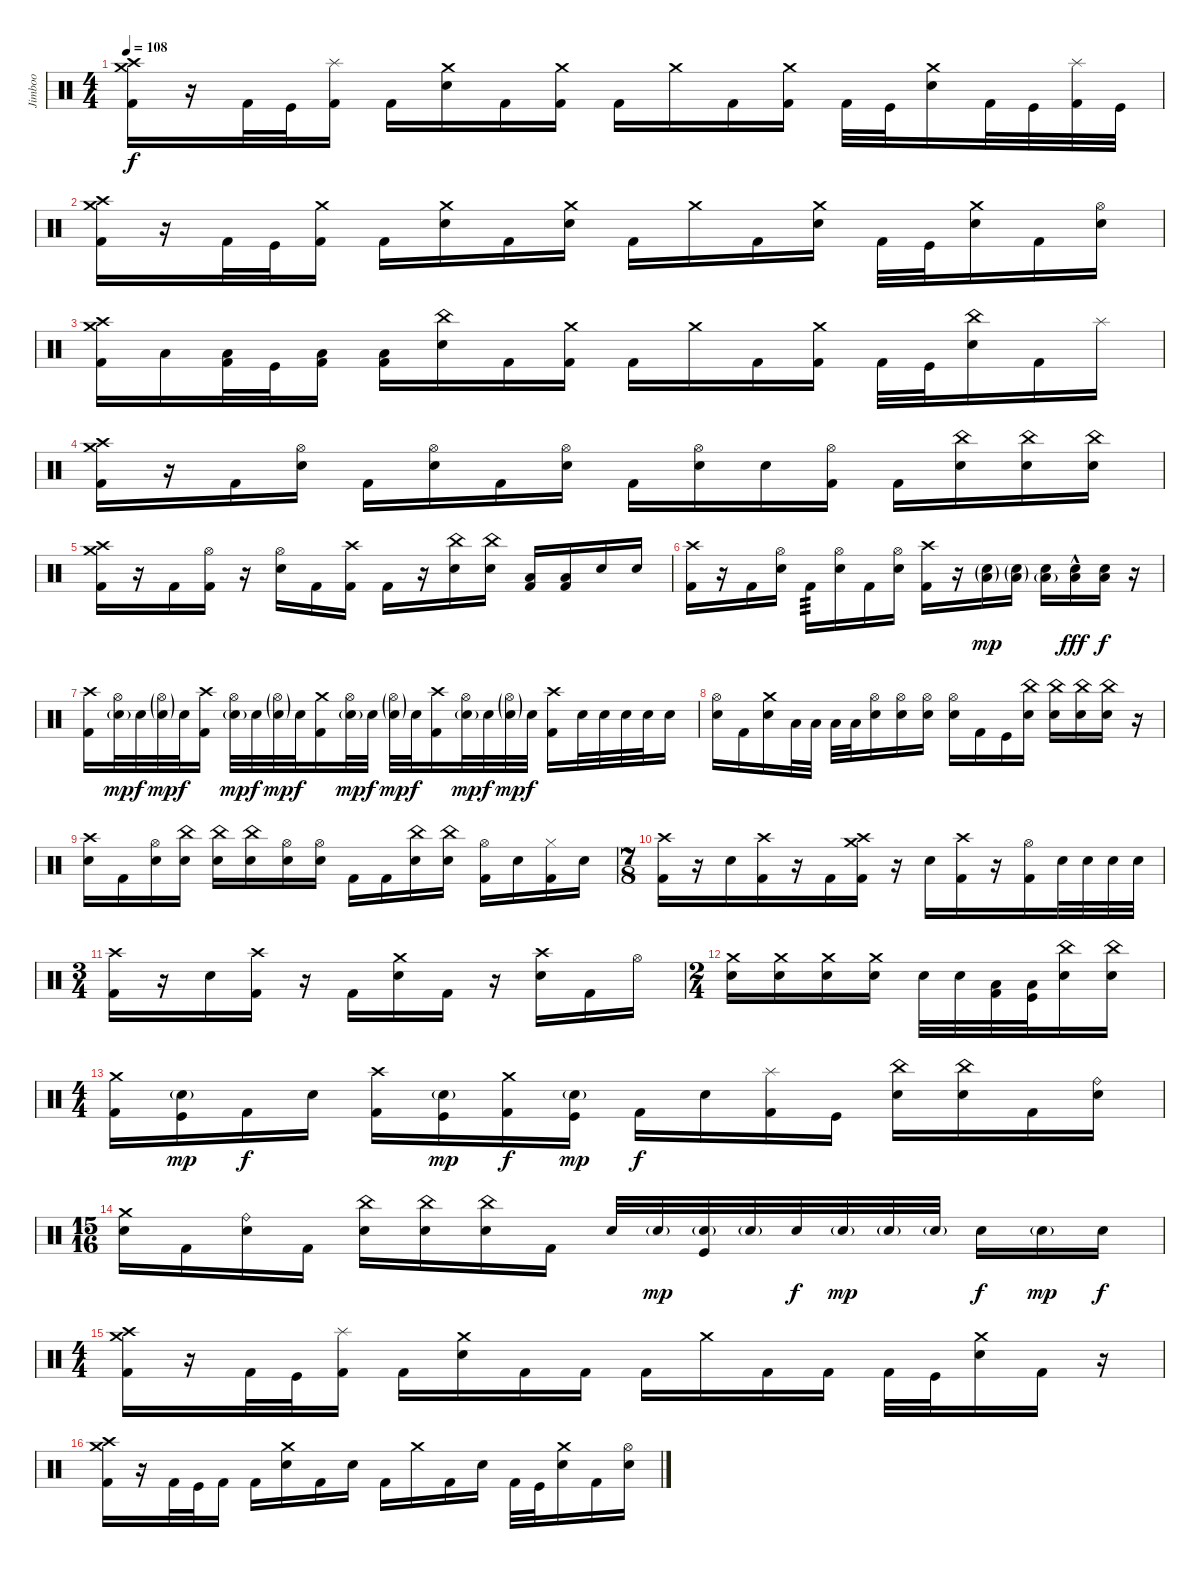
\track ("Jimboo" "Jimboo") {instrument percussion}
\staff
\articulation defaults
\ts (4 4)
\tempo 108
\clef neutral
\ks c
("Kick (hit) 2" "Crash medium (hit)" "Crash high (hit)").16{dy f} r.16 "Kick (hit) 2".32 "Kick (hit)".32 ("Kick (hit) 2" "Splash (hit)").16 "Kick (hit) 2".16 ("Electric Snare (hit)" "Crash medium (hit)").16 "Kick (hit) 2".16 ("Kick (hit) 2" "Crash medium (hit)").16 "Kick (hit) 2".16 "Crash medium (hit)".16 "Kick (hit) 2".16 ("Kick (hit) 2" "Crash medium (hit)").16 "Kick (hit) 2".32 "Kick (hit)".32 ("Electric Snare (hit)" "Crash medium (hit)").16 "Kick (hit) 2".32 "Kick (hit)".32 ("Kick (hit) 2" "Splash (hit)").32 "Kick (hit)".32 |
("Kick (hit) 2" "Crash medium (hit)" "Crash high (hit)").16 r.16 "Kick (hit) 2".32 "Kick (hit)".32 ("Kick (hit) 2" "Crash medium (hit)").16 "Kick (hit) 2".16 ("Electric Snare (hit)" "Crash medium (hit)").16 "Kick (hit) 2".16 ("Electric Snare (hit)" "Crash medium (hit)").16 "Kick (hit) 2".16 "Crash medium (hit)".16 "Kick (hit) 2".16 ("Electric Snare (hit)" "Crash medium (hit)").16 "Kick (hit) 2".32 "Kick (hit)".32 ("Electric Snare (hit)" "Crash medium (hit)").16 "Kick (hit) 2".16 ("Electric Snare (hit)" "Hi-Hat (open)").16 |
("Kick (hit) 2" "Crash medium (hit)" "Crash high (hit)").16 "Low Tom (hit)".16 ("Kick (hit) 2" "Low Tom (hit)").32 "Kick (hit)".32 ("Kick (hit) 2" "Low Tom (hit)").16 ("Kick (hit) 2" "Low Floor Tom (hit)").16 ("Electric Snare (hit)" "China (hit)").16 "Kick (hit) 2".16 ("Kick (hit) 2" "Crash medium (hit)").16 "Kick (hit) 2".16 "Crash medium (hit)".16 "Kick (hit) 2".16 ("Kick (hit) 2" "Crash medium (hit)").16 "Kick (hit) 2".32 "Kick (hit)".32 ("Electric Snare (hit)" "China (hit)").16 "Kick (hit) 2".16 "Splash (hit)".16 |
("Kick (hit) 2" "Crash high (hit)" "Crash medium (hit)").16 r.16 "Kick (hit) 2".16 ("Electric Snare (hit)" "Hi-Hat (open)").16 "Kick (hit) 2".16 ("Electric Snare (hit)" "Hi-Hat (open)").16 "Kick (hit) 2".16 ("Electric Snare (hit)" "Hi-Hat (open)").16 "Kick (hit) 2".16 ("Electric Snare (hit)" "Hi-Hat (open)").16 "Electric Snare (hit)".16 ("Kick (hit) 2" "Hi-Hat (open)").16 "Kick (hit) 2".16 ("Electric Snare (hit)" "China (hit)").16 ("Electric Snare (hit)" "China (hit)").16 ("Electric Snare (hit)" "China (hit)").16 |
("Kick (hit) 2" "Crash medium (hit)" "Crash high (hit)").16 r.16 "Kick (hit) 2".16 ("Kick (hit) 2" "Hi-Hat (open)").16 r.16 ("Electric Snare (hit)" "Hi-Hat (open)").16 "Kick (hit) 2".16 ("Kick (hit) 2" "Crash high (hit)").16 "Kick (hit) 2".16 r.16 ("Electric Snare (hit)" "China (hit)").16 ("Electric Snare (hit)" "China (hit)").16 ("Kick (hit) 2" "Low Tom (hit)").16 ("Kick (hit) 2" "Low Floor Tom (hit)").16 "Electric Snare (hit)".16 "Electric Snare (hit)".16 |
("Kick (hit) 2" "Crash high (hit)").16 r.16 "Kick (hit) 2".16 ("Electric Snare (hit)" "Hi-Hat (open)").16 "Kick (hit) 2".16{tp 3} ("Electric Snare (hit)" "Hi-Hat (open)").16 "Kick (hit) 2".16 ("Electric Snare (hit)" "Hi-Hat (open)").16 ("Kick (hit) 2" "Crash high (hit)").16 r.16 ("Electric Snare (hit)"{g} "Low Floor Tom (hit)"{g}).16{dy mp} ("Electric Snare (hit)"{g} "Low Floor Tom (hit)"{g}).16 ("Electric Snare (hit)" "Low Floor Tom (hit)"{g}).16 ("Electric Snare (hit)"{hac} "Low Floor Tom (hit)").16{dy fff} ("Electric Snare (hit)" "Low Floor Tom (hit)").16{dy f} r.16 |
("Kick (hit) 2" "Crash high (hit)").16 ("Electric Snare (hit)"{g} "Hi-Hat (open)").32{dy mp} "Electric Snare (hit)".32{dy f} ("Electric Snare (hit)"{g} "Hi-Hat (open)"{g}).32{dy mp} "Electric Snare (hit)".32{dy f} ("Kick (hit) 2" "Crash high (hit)").16 ("Electric Snare (hit)"{g} "Hi-Hat (open)").32{dy mp} "Electric Snare (hit)".32{dy f} ("Electric Snare (hit)"{g} "Hi-Hat (open)"{g}).32{dy mp} "Electric Snare (hit)".32{dy f} ("Kick (hit) 2" "Crash medium (hit)").16 ("Electric Snare (hit)"{g} "Hi-Hat (open)").32{dy mp} "Electric Snare (hit)".32{dy f} ("Electric Snare (hit)"{g} "Hi-Hat (open)"{g}).32{dy mp} "Electric Snare (hit)".32{dy f} ("Kick (hit) 2" "Crash high (hit)").16 ("Electric Snare (hit)"{g} "Hi-Hat (open)").32{dy mp} "Electric Snare (hit)".32{dy f} ("Electric Snare (hit)"{g} "Hi-Hat (open)"{g}).32{dy mp} "Electric Snare (hit)".32{dy f} ("Kick (hit) 2" "Crash high (hit)").16 "Electric Snare (hit)".32 "Electric Snare (hit)".32 "Electric Snare (hit)".32 "Electric Snare (hit)".32 "Electric Snare (hit)".16 |
("Electric Snare (hit)" "Hi-Hat (open)").16 "Kick (hit) 2".16 ("Electric Snare (hit)" "Crash medium (hit)").16 "Low Tom (hit)".32 "Low Tom (hit)".32 "Low Floor Tom (hit)".32 "Low Floor Tom (hit)".32 ("Electric Snare (hit)" "Hi-Hat (open)").16 ("Electric Snare (hit)" "Hi-Hat (open)").16 ("Electric Snare (hit)" "Hi-Hat (open)").16 ("Electric Snare (hit)" "Hi-Hat (open)").16 "Kick (hit) 2".16 "Kick (hit)".16 ("Electric Snare (hit)" "China (hit)").16 ("Electric Snare (hit)" "China (hit)").16 ("Electric Snare (hit)" "China (hit)").16 ("Electric Snare (hit)" "China (hit)").16 r.16 |
("Electric Snare (hit)" "Crash high (hit)").16 "Kick (hit) 2".16 ("Electric Snare (hit)" "Hi-Hat (open)").16 ("Electric Snare (hit)" "China (hit)").16 ("Electric Snare (hit)" "China (hit)").16 ("Electric Snare (hit)" "China (hit)").16 ("Electric Snare (hit)" "Hi-Hat (open)").16 ("Electric Snare (hit)" "Hi-Hat (open)").16 "Kick (hit) 2".16 "Kick (hit) 2".16 ("Electric Snare (hit)" "China (hit)").16 ("Electric Snare (hit)" "China (hit)").16 ("Kick (hit) 2" "Hi-Hat (open)").16 "Electric Snare (hit)".16 ("Kick (hit) 2" "Hi-Hat (closed)").16 "Electric Snare (hit)".16 |
\ts (7 8)
("Kick (hit) 2" "Crash high (hit)").16 r.16 "Electric Snare (hit)".16 ("Kick (hit) 2" "Crash high (hit)").16 r.16 "Kick (hit) 2".16 ("Kick (hit) 2" "Crash medium (hit)" "Crash high (hit)").16 r.16 "Electric Snare (hit)".16 ("Kick (hit) 2" "Crash high (hit)").16 r.16 ("Kick (hit) 2" "Hi-Hat (open)").16 "Electric Snare (hit)".32 "Electric Snare (hit)".32 "Electric Snare (hit)".32 "Electric Snare (hit)".32 |
\ts (3 4)
("Kick (hit) 2" "Crash high (hit)").16 r.16 "Electric Snare (hit)".16 ("Kick (hit) 2" "Crash high (hit)").16 r.16 "Kick (hit) 2".16 ("Electric Snare (hit)" "Crash medium (hit)").16 "Kick (hit) 2".16 r.16 ("Electric Snare (hit)" "Crash high (hit)").16 "Kick (hit) 2".16 "Hi-Hat (open)".16 |
\ts (2 4)
("Electric Snare (hit)" "Crash medium (hit)").16 ("Electric Snare (hit)" "Crash medium (hit)").16 ("Electric Snare (hit)" "Crash medium (hit)").16 ("Electric Snare (hit)" "Crash medium (hit)").16 "Electric Snare (hit)".32 "Electric Snare (hit)".32 ("Low Tom (hit)" "Kick (hit) 2").32 ("Low Floor Tom (hit)" "Kick (hit)").32 ("Electric Snare (hit)" "China (hit)").16 ("Electric Snare (hit)" "China (hit)").16 |
\ts (4 4)
("Kick (hit) 2" "Crash medium (hit)").16 ("Kick (hit)" "Electric Snare (hit)"{g}).16{dy mp} "Kick (hit) 2".16{dy f} "Electric Snare (hit)".16 ("Kick (hit) 2" "Crash high (hit)").16 ("Kick (hit)" "Electric Snare (hit)"{g}).16{dy mp} ("Kick (hit) 2" "Crash medium (hit)").16{dy f} ("Kick (hit)" "Electric Snare (hit)"{g}).16{dy mp} "Kick (hit) 2".16{dy f} "Electric Snare (hit)".16 ("Kick (hit) 2" "Splash (hit)").16 "Kick (hit)".16 ("Electric Snare (hit)" "China (hit)").16 ("Electric Snare (hit)" "China (hit)").16 "Kick (hit) 2".16 ("Electric Snare (hit)" "Ride (bell)").16 |
\ts (15 16)
("Electric Snare (hit)" "Crash medium (hit)").16 "Kick (hit) 2".16 ("Electric Snare (hit)" "Ride (bell)").16 "Kick (hit) 2".16 ("Electric Snare (hit)" "China (hit)").16 ("Electric Snare (hit)" "China (hit)").16 ("Electric Snare (hit)" "China (hit)").16 "Kick (hit) 2".16 "Electric Snare (hit)".32 "Electric Snare (hit)"{g}.32{dy mp} ("Electric Snare (hit)"{g} "Kick (hit)").32 "Electric Snare (hit)"{g}.32 "Electric Snare (hit)".32{dy f} "Electric Snare (hit)"{g}.32{dy mp} "Electric Snare (hit)"{g}.32 "Electric Snare (hit)"{g}.32 "Electric Snare (hit)".16{dy f} "Electric Snare (hit)"{g}.16{dy mp} "Electric Snare (hit)".16{dy f} |
\ts (4 4)
("Kick (hit) 2" "Crash medium (hit)" "Crash high (hit)").16 r.16 "Kick (hit) 2".32 "Kick (hit)".32 ("Kick (hit) 2" "Splash (hit)").16 "Kick (hit) 2".16 ("Electric Snare (hit)" "Crash medium (hit)").16 "Kick (hit) 2".16 "Kick (hit) 2".16 "Kick (hit) 2".16 "Crash medium (hit)".16 "Kick (hit) 2".16 "Kick (hit) 2".16 "Kick (hit) 2".32 "Kick (hit)".32 ("Electric Snare (hit)" "Crash medium (hit)").16 "Kick (hit) 2".16 r.16 |
("Kick (hit) 2" "Crash medium (hit)" "Crash high (hit)").16 r.16 "Kick (hit) 2".32 "Kick (hit)".32 "Kick (hit) 2".16 "Kick (hit) 2".16 ("Electric Snare (hit)" "Crash medium (hit)").16 "Kick (hit) 2".16 "Electric Snare (hit)".16 "Kick (hit) 2".16 "Crash medium (hit)".16 "Kick (hit) 2".16 "Electric Snare (hit)".16 "Kick (hit) 2".32 "Kick (hit)".32 ("Electric Snare (hit)" "Crash medium (hit)").16 "Kick (hit) 2".16 ("Electric Snare (hit)" "Hi-Hat (open)").16
